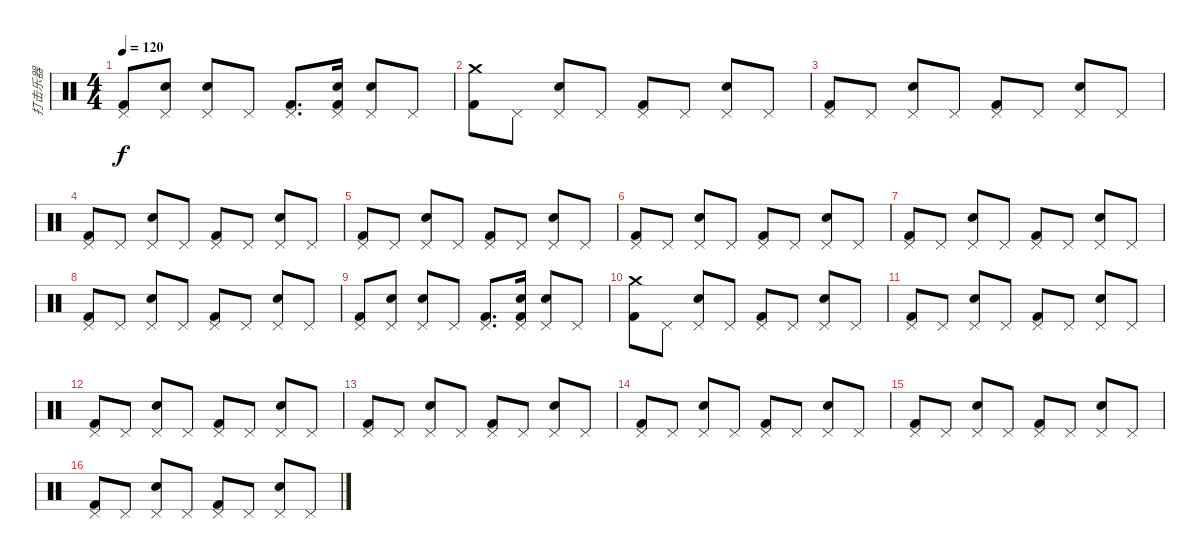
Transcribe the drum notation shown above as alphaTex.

\track ("打击乐器" "打击乐器") {instrument percussion}
\staff {score}
\articulation defaults
\ts (4 4)
\tempo 120
\clef neutral
\ks c
("Pedal Hi-Hat (hit)" "Kick (hit) 2").8{dy f} ("Pedal Hi-Hat (hit)" "Electric Snare (hit)").8 ("Pedal Hi-Hat (hit)" "Electric Snare (hit)").8 "Pedal Hi-Hat (hit)".8 ("Pedal Hi-Hat (hit)" "Kick (hit) 2").8{d} ("Pedal Hi-Hat (hit)" "Electric Snare (hit)" "Kick (hit) 2").16 ("Pedal Hi-Hat (hit)" "Electric Snare (hit)").8 "Pedal Hi-Hat (hit)".8 |
("Crash medium (hit)" "Kick (hit) 2").8 "Pedal Hi-Hat (hit)".8 ("Pedal Hi-Hat (hit)" "Electric Snare (hit)").8 "Pedal Hi-Hat (hit)".8 ("Pedal Hi-Hat (hit)" "Kick (hit) 2").8 "Pedal Hi-Hat (hit)".8 ("Pedal Hi-Hat (hit)" "Electric Snare (hit)").8 "Pedal Hi-Hat (hit)".8 |
("Pedal Hi-Hat (hit)" "Kick (hit) 2").8 "Pedal Hi-Hat (hit)".8 ("Pedal Hi-Hat (hit)" "Electric Snare (hit)").8 "Pedal Hi-Hat (hit)".8 ("Pedal Hi-Hat (hit)" "Kick (hit) 2").8 "Pedal Hi-Hat (hit)".8 ("Pedal Hi-Hat (hit)" "Electric Snare (hit)").8 "Pedal Hi-Hat (hit)".8 |
("Pedal Hi-Hat (hit)" "Kick (hit) 2").8 "Pedal Hi-Hat (hit)".8 ("Pedal Hi-Hat (hit)" "Electric Snare (hit)").8 "Pedal Hi-Hat (hit)".8 ("Pedal Hi-Hat (hit)" "Kick (hit) 2").8 "Pedal Hi-Hat (hit)".8 ("Pedal Hi-Hat (hit)" "Electric Snare (hit)").8 "Pedal Hi-Hat (hit)".8 |
("Pedal Hi-Hat (hit)" "Kick (hit) 2").8 "Pedal Hi-Hat (hit)".8 ("Pedal Hi-Hat (hit)" "Electric Snare (hit)").8 "Pedal Hi-Hat (hit)".8 ("Pedal Hi-Hat (hit)" "Kick (hit) 2").8 "Pedal Hi-Hat (hit)".8 ("Pedal Hi-Hat (hit)" "Electric Snare (hit)").8 "Pedal Hi-Hat (hit)".8 |
("Pedal Hi-Hat (hit)" "Kick (hit) 2").8 "Pedal Hi-Hat (hit)".8 ("Pedal Hi-Hat (hit)" "Electric Snare (hit)").8 "Pedal Hi-Hat (hit)".8 ("Pedal Hi-Hat (hit)" "Kick (hit) 2").8 "Pedal Hi-Hat (hit)".8 ("Pedal Hi-Hat (hit)" "Electric Snare (hit)").8 "Pedal Hi-Hat (hit)".8 |
("Pedal Hi-Hat (hit)" "Kick (hit) 2").8 "Pedal Hi-Hat (hit)".8 ("Pedal Hi-Hat (hit)" "Electric Snare (hit)").8 "Pedal Hi-Hat (hit)".8 ("Pedal Hi-Hat (hit)" "Kick (hit) 2").8 "Pedal Hi-Hat (hit)".8 ("Pedal Hi-Hat (hit)" "Electric Snare (hit)").8 "Pedal Hi-Hat (hit)".8 |
("Pedal Hi-Hat (hit)" "Kick (hit) 2").8 "Pedal Hi-Hat (hit)".8 ("Pedal Hi-Hat (hit)" "Electric Snare (hit)").8 "Pedal Hi-Hat (hit)".8 ("Pedal Hi-Hat (hit)" "Kick (hit) 2").8 "Pedal Hi-Hat (hit)".8 ("Pedal Hi-Hat (hit)" "Electric Snare (hit)").8 "Pedal Hi-Hat (hit)".8 |
("Pedal Hi-Hat (hit)" "Kick (hit) 2").8 ("Pedal Hi-Hat (hit)" "Electric Snare (hit)").8 ("Pedal Hi-Hat (hit)" "Electric Snare (hit)").8 "Pedal Hi-Hat (hit)".8 ("Pedal Hi-Hat (hit)" "Kick (hit) 2").8{d} ("Pedal Hi-Hat (hit)" "Electric Snare (hit)" "Kick (hit) 2").16 ("Pedal Hi-Hat (hit)" "Electric Snare (hit)").8 "Pedal Hi-Hat (hit)".8 |
("Crash medium (hit)" "Kick (hit) 2").8 "Pedal Hi-Hat (hit)".8 ("Pedal Hi-Hat (hit)" "Electric Snare (hit)").8 "Pedal Hi-Hat (hit)".8 ("Pedal Hi-Hat (hit)" "Kick (hit) 2").8 "Pedal Hi-Hat (hit)".8 ("Pedal Hi-Hat (hit)" "Electric Snare (hit)").8 "Pedal Hi-Hat (hit)".8 |
("Pedal Hi-Hat (hit)" "Kick (hit) 2").8 "Pedal Hi-Hat (hit)".8 ("Pedal Hi-Hat (hit)" "Electric Snare (hit)").8 "Pedal Hi-Hat (hit)".8 ("Pedal Hi-Hat (hit)" "Kick (hit) 2").8 "Pedal Hi-Hat (hit)".8 ("Pedal Hi-Hat (hit)" "Electric Snare (hit)").8 "Pedal Hi-Hat (hit)".8 |
("Pedal Hi-Hat (hit)" "Kick (hit) 2").8 "Pedal Hi-Hat (hit)".8 ("Pedal Hi-Hat (hit)" "Electric Snare (hit)").8 "Pedal Hi-Hat (hit)".8 ("Pedal Hi-Hat (hit)" "Kick (hit) 2").8 "Pedal Hi-Hat (hit)".8 ("Pedal Hi-Hat (hit)" "Electric Snare (hit)").8 "Pedal Hi-Hat (hit)".8 |
("Pedal Hi-Hat (hit)" "Kick (hit) 2").8 "Pedal Hi-Hat (hit)".8 ("Pedal Hi-Hat (hit)" "Electric Snare (hit)").8 "Pedal Hi-Hat (hit)".8 ("Pedal Hi-Hat (hit)" "Kick (hit) 2").8 "Pedal Hi-Hat (hit)".8 ("Pedal Hi-Hat (hit)" "Electric Snare (hit)").8 "Pedal Hi-Hat (hit)".8 |
("Pedal Hi-Hat (hit)" "Kick (hit) 2").8 "Pedal Hi-Hat (hit)".8 ("Pedal Hi-Hat (hit)" "Electric Snare (hit)").8 "Pedal Hi-Hat (hit)".8 ("Pedal Hi-Hat (hit)" "Kick (hit) 2").8 "Pedal Hi-Hat (hit)".8 ("Pedal Hi-Hat (hit)" "Electric Snare (hit)").8 "Pedal Hi-Hat (hit)".8 |
("Pedal Hi-Hat (hit)" "Kick (hit) 2").8 "Pedal Hi-Hat (hit)".8 ("Pedal Hi-Hat (hit)" "Electric Snare (hit)").8 "Pedal Hi-Hat (hit)".8 ("Pedal Hi-Hat (hit)" "Kick (hit) 2").8 "Pedal Hi-Hat (hit)".8 ("Pedal Hi-Hat (hit)" "Electric Snare (hit)").8 "Pedal Hi-Hat (hit)".8 |
("Pedal Hi-Hat (hit)" "Kick (hit) 2").8 "Pedal Hi-Hat (hit)".8 ("Pedal Hi-Hat (hit)" "Electric Snare (hit)").8 "Pedal Hi-Hat (hit)".8 ("Pedal Hi-Hat (hit)" "Kick (hit) 2").8 "Pedal Hi-Hat (hit)".8 ("Pedal Hi-Hat (hit)" "Electric Snare (hit)").8 "Pedal Hi-Hat (hit)".8
